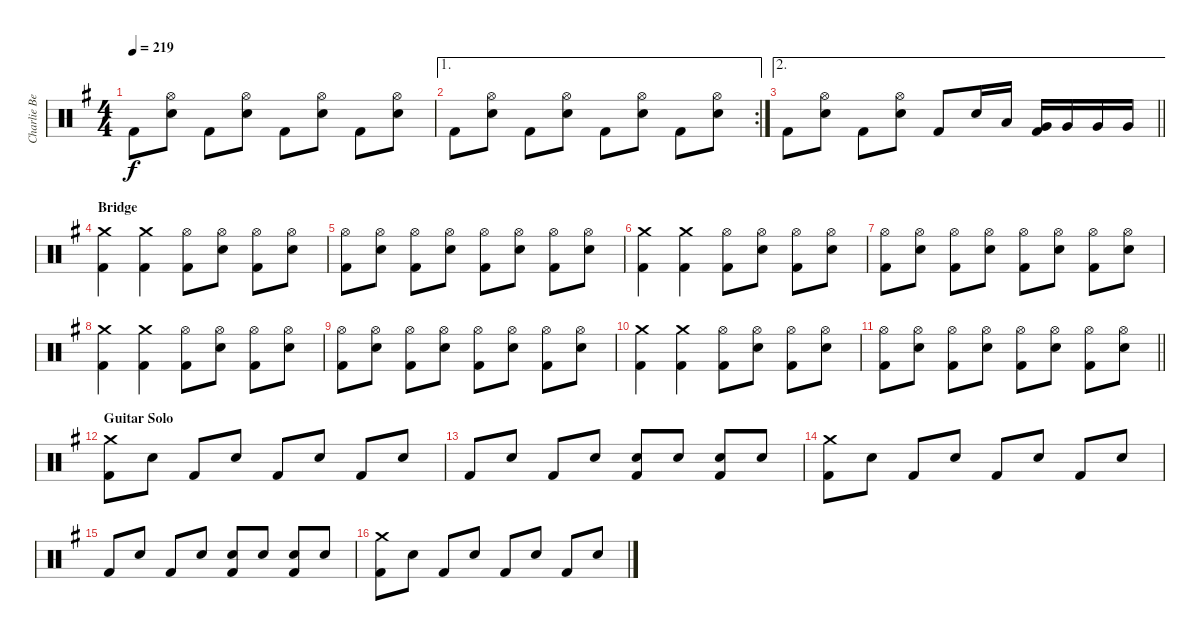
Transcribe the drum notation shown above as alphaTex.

\track ("Charlie Benate" "Charlie Be") {instrument percussion}
\staff {score}
\articulation defaults
\ts (4 4)
\tempo 219
\clef neutral
\ks g "Kick (hit) 2".8{dy f}
("Hi-Hat (open)" "Snare (hit) 2").8 "Kick (hit) 2".8 ("Hi-Hat (open)" "Snare (hit) 2").8 "Kick (hit) 2".8 ("Hi-Hat (open)" "Snare (hit) 2").8 "Kick (hit) 2".8 ("Hi-Hat (open)" "Snare (hit) 2").8 |
\ae 1
\rc 2 "Kick (hit) 2".8
("Hi-Hat (open)" "Snare (hit) 2").8 "Kick (hit) 2".8 ("Hi-Hat (open)" "Snare (hit) 2").8 "Kick (hit) 2".8 ("Hi-Hat (open)" "Snare (hit) 2").8 "Kick (hit) 2".8 ("Hi-Hat (open)" "Snare (hit) 2").8 |
\ae 2
\barLineRight lightlight "Kick (hit) 2".8
("Hi-Hat (open)" "Snare (hit) 2").8 "Kick (hit) 2".8 ("Hi-Hat (open)" "Snare (hit) 2").8 "Kick (hit) 2".8 "Snare (hit) 2".16 "Low Tom (hit)".16 ("Very Low Tom (hit)" "Kick (hit) 2").16 "Very Low Tom (hit)".16 "Very Low Tom (hit)".16 "Very Low Tom (hit)".16 |
\section ("" "Bridge")
("Crash medium (hit)" "Kick (hit) 2").4 ("Crash medium (hit)" "Kick (hit) 2").4 ("Hi-Hat (open)" "Kick (hit) 2").8 ("Hi-Hat (open)" "Snare (hit) 2").8 ("Hi-Hat (open)" "Kick (hit) 2").8 ("Hi-Hat (open)" "Snare (hit) 2").8 |
("Hi-Hat (open)" "Kick (hit) 2").8 ("Hi-Hat (open)" "Snare (hit) 2").8 ("Hi-Hat (open)" "Kick (hit) 2").8 ("Hi-Hat (open)" "Snare (hit) 2").8 ("Hi-Hat (open)" "Kick (hit) 2").8 ("Hi-Hat (open)" "Snare (hit) 2").8 ("Hi-Hat (open)" "Kick (hit) 2").8 ("Hi-Hat (open)" "Snare (hit) 2").8 |
("Crash medium (hit)" "Kick (hit) 2").4 ("Crash medium (hit)" "Kick (hit) 2").4 ("Hi-Hat (open)" "Kick (hit) 2").8 ("Hi-Hat (open)" "Snare (hit) 2").8 ("Hi-Hat (open)" "Kick (hit) 2").8 ("Hi-Hat (open)" "Snare (hit) 2").8 |
("Hi-Hat (open)" "Kick (hit) 2").8 ("Hi-Hat (open)" "Snare (hit) 2").8 ("Hi-Hat (open)" "Kick (hit) 2").8 ("Hi-Hat (open)" "Snare (hit) 2").8 ("Hi-Hat (open)" "Kick (hit) 2").8 ("Hi-Hat (open)" "Snare (hit) 2").8 ("Hi-Hat (open)" "Kick (hit) 2").8 ("Hi-Hat (open)" "Snare (hit) 2").8 |
("Crash medium (hit)" "Kick (hit) 2").4 ("Crash medium (hit)" "Kick (hit) 2").4 ("Hi-Hat (open)" "Kick (hit) 2").8 ("Hi-Hat (open)" "Snare (hit) 2").8 ("Hi-Hat (open)" "Kick (hit) 2").8 ("Hi-Hat (open)" "Snare (hit) 2").8 |
("Hi-Hat (open)" "Kick (hit) 2").8 ("Hi-Hat (open)" "Snare (hit) 2").8 ("Hi-Hat (open)" "Kick (hit) 2").8 ("Hi-Hat (open)" "Snare (hit) 2").8 ("Hi-Hat (open)" "Kick (hit) 2").8 ("Hi-Hat (open)" "Snare (hit) 2").8 ("Hi-Hat (open)" "Kick (hit) 2").8 ("Hi-Hat (open)" "Snare (hit) 2").8 |
("Crash medium (hit)" "Kick (hit) 2").4 ("Crash medium (hit)" "Kick (hit) 2").4 ("Hi-Hat (open)" "Kick (hit) 2").8 ("Hi-Hat (open)" "Snare (hit) 2").8 ("Hi-Hat (open)" "Kick (hit) 2").8 ("Hi-Hat (open)" "Snare (hit) 2").8 |
\barLineRight lightlight
("Hi-Hat (open)" "Kick (hit) 2").8 ("Hi-Hat (open)" "Snare (hit) 2").8 ("Hi-Hat (open)" "Kick (hit) 2").8 ("Hi-Hat (open)" "Snare (hit) 2").8 ("Hi-Hat (open)" "Kick (hit) 2").8 ("Hi-Hat (open)" "Snare (hit) 2").8 ("Hi-Hat (open)" "Kick (hit) 2").8 ("Hi-Hat (open)" "Snare (hit) 2").8 |
\section ("" "Guitar Solo")
("Crash medium (hit)" "Kick (hit) 2").8 "Snare (hit) 2".8 "Kick (hit) 2".8 "Snare (hit) 2".8 "Kick (hit) 2".8 "Snare (hit) 2".8 "Kick (hit) 2".8 "Snare (hit) 2".8 |
"Kick (hit) 2".8 "Snare (hit) 2".8 "Kick (hit) 2".8 "Snare (hit) 2".8 ("Snare (hit) 2" "Kick (hit) 2").8 "Snare (hit) 2".8 ("Snare (hit) 2" "Kick (hit) 2").8 "Snare (hit) 2".8 |
("Crash medium (hit)" "Kick (hit) 2").8 "Snare (hit) 2".8 "Kick (hit) 2".8 "Snare (hit) 2".8 "Kick (hit) 2".8 "Snare (hit) 2".8 "Kick (hit) 2".8 "Snare (hit) 2".8 |
"Kick (hit) 2".8 "Snare (hit) 2".8 "Kick (hit) 2".8 "Snare (hit) 2".8 ("Snare (hit) 2" "Kick (hit) 2").8 "Snare (hit) 2".8 ("Snare (hit) 2" "Kick (hit) 2").8 "Snare (hit) 2".8 |
("Crash medium (hit)" "Kick (hit) 2").8 "Snare (hit) 2".8 "Kick (hit) 2".8 "Snare (hit) 2".8 "Kick (hit) 2".8 "Snare (hit) 2".8 "Kick (hit) 2".8 "Snare (hit) 2".8
